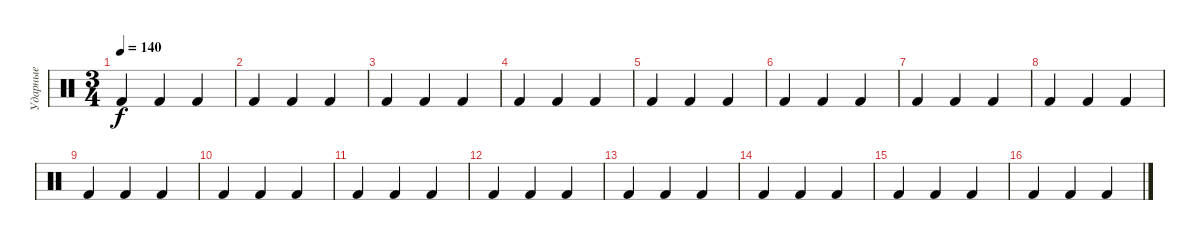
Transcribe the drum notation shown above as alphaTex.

\track ("Ударные" "Ударные") {instrument percussion}
\staff {score}
\articulation defaults
\ts (3 4)
\tempo 140
\clef neutral
\ks c "Kick (hit) 2".4{dy f} "Kick (hit) 2".4 "Kick (hit) 2".4
|
"Kick (hit) 2".4 "Kick (hit) 2".4 "Kick (hit) 2".4 |
"Kick (hit) 2".4 "Kick (hit) 2".4 "Kick (hit) 2".4 |
"Kick (hit) 2".4 "Kick (hit) 2".4 "Kick (hit) 2".4 |
"Kick (hit) 2".4 "Kick (hit) 2".4 "Kick (hit) 2".4 |
"Kick (hit) 2".4 "Kick (hit) 2".4 "Kick (hit) 2".4 |
"Kick (hit) 2".4 "Kick (hit) 2".4 "Kick (hit) 2".4 |
"Kick (hit) 2".4 "Kick (hit) 2".4 "Kick (hit) 2".4 |
"Kick (hit) 2".4 "Kick (hit) 2".4 "Kick (hit) 2".4 |
"Kick (hit) 2".4 "Kick (hit) 2".4 "Kick (hit) 2".4 |
"Kick (hit) 2".4 "Kick (hit) 2".4 "Kick (hit) 2".4 |
"Kick (hit) 2".4 "Kick (hit) 2".4 "Kick (hit) 2".4 |
"Kick (hit) 2".4 "Kick (hit) 2".4 "Kick (hit) 2".4 |
"Kick (hit) 2".4 "Kick (hit) 2".4 "Kick (hit) 2".4 |
"Kick (hit) 2".4 "Kick (hit) 2".4 "Kick (hit) 2".4 |
"Kick (hit) 2".4 "Kick (hit) 2".4 "Kick (hit) 2".4
